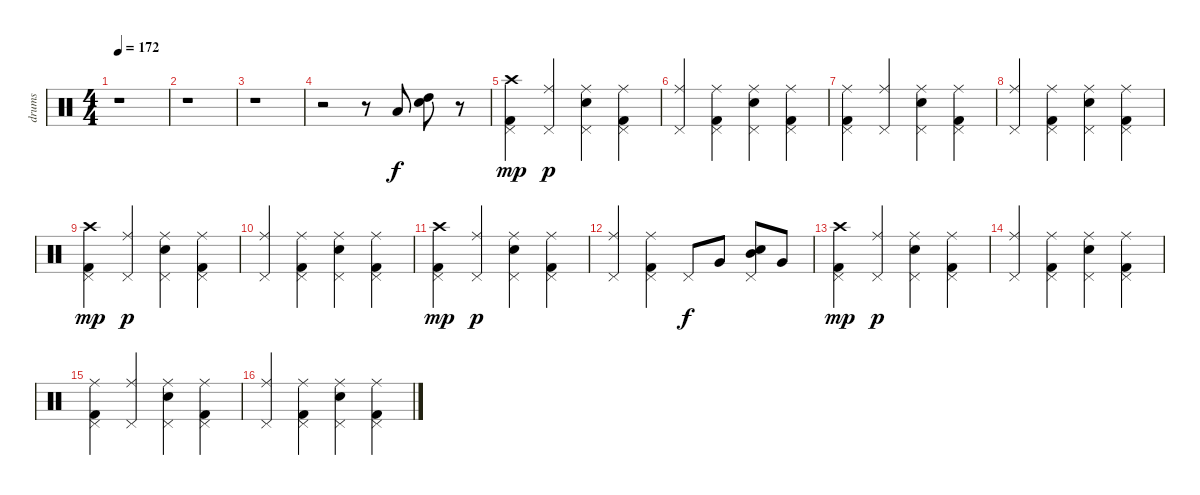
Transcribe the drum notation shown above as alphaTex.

\track ("drums" "drums") {instrument percussion}
\staff {score}
\articulation defaults
\ts (4 4)
\tempo 172
\clef neutral
\ks c
r.1{dy f} |
r.1 |
r.1 |
r.2 r.8 "Low Tom (hit)".8 ("Electric Snare (hit)" "High Tom (hit)").8 r.8 |
("Crash high (hit)" "Kick (hit) 2" "Pedal Hi-Hat (hit)").4{dy mp} ("Ride (middle)" "Pedal Hi-Hat (hit)").4{dy p} ("Ride (middle)" "Electric Snare (hit)" "Pedal Hi-Hat (hit)").4 ("Ride (middle)" "Kick (hit) 2" "Pedal Hi-Hat (hit)").4 |
("Ride (middle)" "Pedal Hi-Hat (hit)").4 ("Ride (middle)" "Kick (hit) 2" "Pedal Hi-Hat (hit)").4 ("Ride (middle)" "Electric Snare (hit)" "Pedal Hi-Hat (hit)").4 ("Ride (middle)" "Kick (hit) 2" "Pedal Hi-Hat (hit)").4 |
("Ride (middle)" "Kick (hit) 2" "Pedal Hi-Hat (hit)").4 ("Ride (middle)" "Pedal Hi-Hat (hit)").4 ("Ride (middle)" "Electric Snare (hit)" "Pedal Hi-Hat (hit)").4 ("Ride (middle)" "Kick (hit) 2" "Pedal Hi-Hat (hit)").4 |
("Ride (middle)" "Pedal Hi-Hat (hit)").4 ("Ride (middle)" "Kick (hit) 2" "Pedal Hi-Hat (hit)").4 ("Ride (middle)" "Electric Snare (hit)" "Pedal Hi-Hat (hit)").4 ("Ride (middle)" "Kick (hit) 2" "Pedal Hi-Hat (hit)").4 |
("Crash high (hit)" "Kick (hit) 2" "Pedal Hi-Hat (hit)").4{dy mp} ("Ride (middle)" "Pedal Hi-Hat (hit)").4{dy p} ("Ride (middle)" "Electric Snare (hit)" "Pedal Hi-Hat (hit)").4 ("Ride (middle)" "Kick (hit) 2" "Pedal Hi-Hat (hit)").4 |
("Ride (middle)" "Pedal Hi-Hat (hit)").4 ("Ride (middle)" "Kick (hit) 2" "Pedal Hi-Hat (hit)").4 ("Ride (middle)" "Electric Snare (hit)" "Pedal Hi-Hat (hit)").4 ("Ride (middle)" "Kick (hit) 2" "Pedal Hi-Hat (hit)").4 |
("Crash high (hit)" "Kick (hit) 2" "Pedal Hi-Hat (hit)").4{dy mp} ("Ride (middle)" "Pedal Hi-Hat (hit)").4{dy p} ("Ride (middle)" "Electric Snare (hit)" "Pedal Hi-Hat (hit)").4 ("Ride (middle)" "Kick (hit) 2" "Pedal Hi-Hat (hit)").4 |
("Ride (middle)" "Pedal Hi-Hat (hit)").4 ("Ride (middle)" "Kick (hit) 2" "Pedal Hi-Hat (hit)").4 "Pedal Hi-Hat (hit)".8{dy f} "Very Low Tom (hit)".8 ("Electric Snare (hit)" "Mid Tom (hit)" "Pedal Hi-Hat (hit)").8 "Very Low Tom (hit)".8 |
("Crash high (hit)" "Kick (hit) 2" "Pedal Hi-Hat (hit)").4{dy mp} ("Ride (middle)" "Pedal Hi-Hat (hit)").4{dy p} ("Ride (middle)" "Electric Snare (hit)" "Pedal Hi-Hat (hit)").4 ("Ride (middle)" "Kick (hit) 2" "Pedal Hi-Hat (hit)").4 |
("Ride (middle)" "Pedal Hi-Hat (hit)").4 ("Ride (middle)" "Kick (hit) 2" "Pedal Hi-Hat (hit)").4 ("Ride (middle)" "Electric Snare (hit)" "Pedal Hi-Hat (hit)").4 ("Ride (middle)" "Kick (hit) 2" "Pedal Hi-Hat (hit)").4 |
("Ride (middle)" "Kick (hit) 2" "Pedal Hi-Hat (hit)").4 ("Ride (middle)" "Pedal Hi-Hat (hit)").4 ("Ride (middle)" "Electric Snare (hit)" "Pedal Hi-Hat (hit)").4 ("Ride (middle)" "Kick (hit) 2" "Pedal Hi-Hat (hit)").4 |
("Ride (middle)" "Pedal Hi-Hat (hit)").4 ("Ride (middle)" "Kick (hit) 2" "Pedal Hi-Hat (hit)").4 ("Ride (middle)" "Electric Snare (hit)" "Pedal Hi-Hat (hit)").4 ("Ride (middle)" "Kick (hit) 2" "Pedal Hi-Hat (hit)").4
